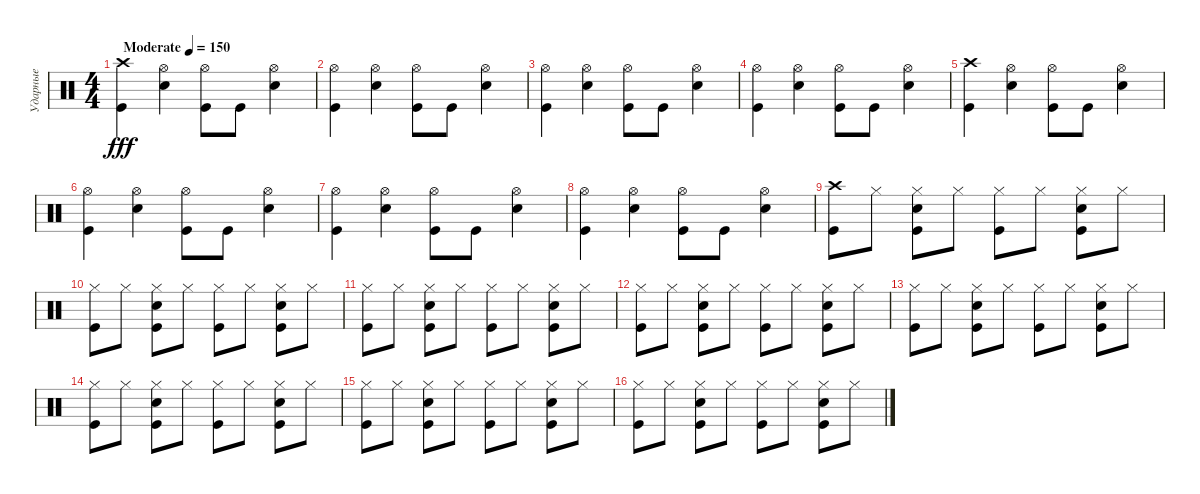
\track ("Ударные" "Ударные") {instrument percussion}
\staff {score}
\articulation defaults
\ts (4 4)
\tempo (150 "Moderate")
\clef neutral
\ks c
("Crash high (hit)" "Kick (hit)").4{dy fff} ("Hi-Hat (open)" "Electric Snare (hit)").4 ("Hi-Hat (open)" "Kick (hit)").8 "Kick (hit)".8 ("Hi-Hat (open)" "Electric Snare (hit)").4 |
("Hi-Hat (open)" "Kick (hit)").4 ("Hi-Hat (open)" "Electric Snare (hit)").4 ("Hi-Hat (open)" "Kick (hit)").8 "Kick (hit)".8 ("Hi-Hat (open)" "Electric Snare (hit)").4 |
("Hi-Hat (open)" "Kick (hit)").4 ("Hi-Hat (open)" "Electric Snare (hit)").4 ("Hi-Hat (open)" "Kick (hit)").8 "Kick (hit)".8 ("Hi-Hat (open)" "Electric Snare (hit)").4 |
("Hi-Hat (open)" "Kick (hit)").4 ("Hi-Hat (open)" "Electric Snare (hit)").4 ("Hi-Hat (open)" "Kick (hit)").8 "Kick (hit)".8 ("Hi-Hat (open)" "Electric Snare (hit)").4 |
("Crash high (hit)" "Kick (hit)").4 ("Hi-Hat (open)" "Electric Snare (hit)").4 ("Hi-Hat (open)" "Kick (hit)").8 "Kick (hit)".8 ("Hi-Hat (open)" "Electric Snare (hit)").4 |
("Hi-Hat (open)" "Kick (hit)").4 ("Hi-Hat (open)" "Electric Snare (hit)").4 ("Hi-Hat (open)" "Kick (hit)").8 "Kick (hit)".8 ("Hi-Hat (open)" "Electric Snare (hit)").4 |
("Hi-Hat (open)" "Kick (hit)").4 ("Hi-Hat (open)" "Electric Snare (hit)").4 ("Hi-Hat (open)" "Kick (hit)").8 "Kick (hit)".8 ("Hi-Hat (open)" "Electric Snare (hit)").4 |
("Hi-Hat (open)" "Kick (hit)").4 ("Hi-Hat (open)" "Electric Snare (hit)").4 ("Hi-Hat (open)" "Kick (hit)").8 "Kick (hit)".8 ("Hi-Hat (open)" "Electric Snare (hit)").4 |
("Crash high (hit)" "Kick (hit)").8 "Hi-Hat (closed)".8 ("Hi-Hat (closed)" "Electric Snare (hit)" "Kick (hit)").8 "Hi-Hat (closed)".8 ("Hi-Hat (closed)" "Kick (hit)").8 "Hi-Hat (closed)".8 ("Hi-Hat (closed)" "Electric Snare (hit)" "Kick (hit)").8 "Hi-Hat (closed)".8 |
("Kick (hit)" "Hi-Hat (closed)").8 "Hi-Hat (closed)".8 ("Hi-Hat (closed)" "Electric Snare (hit)" "Kick (hit)").8 "Hi-Hat (closed)".8 ("Hi-Hat (closed)" "Kick (hit)").8 "Hi-Hat (closed)".8 ("Hi-Hat (closed)" "Kick (hit)" "Electric Snare (hit)").8 "Hi-Hat (closed)".8 |
("Kick (hit)" "Hi-Hat (closed)").8 "Hi-Hat (closed)".8 ("Hi-Hat (closed)" "Electric Snare (hit)" "Kick (hit)").8 "Hi-Hat (closed)".8 ("Hi-Hat (closed)" "Kick (hit)").8 "Hi-Hat (closed)".8 ("Hi-Hat (closed)" "Kick (hit)" "Electric Snare (hit)").8 "Hi-Hat (closed)".8 |
("Kick (hit)" "Hi-Hat (closed)").8 "Hi-Hat (closed)".8 ("Hi-Hat (closed)" "Electric Snare (hit)" "Kick (hit)").8 "Hi-Hat (closed)".8 ("Hi-Hat (closed)" "Kick (hit)").8 "Hi-Hat (closed)".8 ("Hi-Hat (closed)" "Kick (hit)" "Electric Snare (hit)").8 "Hi-Hat (closed)".8 |
("Kick (hit)" "Hi-Hat (closed)").8 "Hi-Hat (closed)".8 ("Hi-Hat (closed)" "Electric Snare (hit)" "Kick (hit)").8 "Hi-Hat (closed)".8 ("Hi-Hat (closed)" "Kick (hit)").8 "Hi-Hat (closed)".8 ("Hi-Hat (closed)" "Kick (hit)" "Electric Snare (hit)").8 "Hi-Hat (closed)".8 |
("Kick (hit)" "Hi-Hat (closed)").8 "Hi-Hat (closed)".8 ("Hi-Hat (closed)" "Electric Snare (hit)" "Kick (hit)").8 "Hi-Hat (closed)".8 ("Hi-Hat (closed)" "Kick (hit)").8 "Hi-Hat (closed)".8 ("Hi-Hat (closed)" "Kick (hit)" "Electric Snare (hit)").8 "Hi-Hat (closed)".8 |
("Kick (hit)" "Hi-Hat (closed)").8 "Hi-Hat (closed)".8 ("Hi-Hat (closed)" "Electric Snare (hit)" "Kick (hit)").8 "Hi-Hat (closed)".8 ("Hi-Hat (closed)" "Kick (hit)").8 "Hi-Hat (closed)".8 ("Hi-Hat (closed)" "Kick (hit)" "Electric Snare (hit)").8 "Hi-Hat (closed)".8 |
("Kick (hit)" "Hi-Hat (closed)").8 "Hi-Hat (closed)".8 ("Hi-Hat (closed)" "Electric Snare (hit)" "Kick (hit)").8 "Hi-Hat (closed)".8 ("Hi-Hat (closed)" "Kick (hit)").8 "Hi-Hat (closed)".8 ("Hi-Hat (closed)" "Kick (hit)" "Electric Snare (hit)").8 "Hi-Hat (closed)".8
